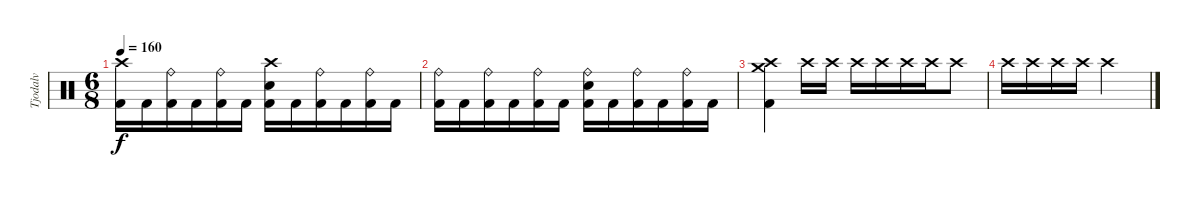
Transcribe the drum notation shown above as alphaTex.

\track ("Tjodalv" "Tjodalv") {instrument percussion}
\staff {score}
\articulation defaults
\ts (6 8)
\tempo 160
\clef neutral
\ks c
("Crash high (hit)" "Kick (hit) 2").16{dy f} "Kick (hit) 2".16 ("Ride (bell)" "Kick (hit) 2").16 "Kick (hit) 2".16 ("Ride (bell)" "Kick (hit) 2").16 "Kick (hit) 2".16 ("Crash high (hit)" "Snare (hit) 2" "Kick (hit) 2").16 "Kick (hit) 2".16 ("Ride (bell)" "Kick (hit) 2").16 "Kick (hit) 2".16 ("Ride (bell)" "Kick (hit) 2").16 "Kick (hit) 2".16 |
("Ride (bell)" "Kick (hit) 2").16 "Kick (hit) 2".16 ("Ride (bell)" "Kick (hit) 2").16 "Kick (hit) 2".16 ("Ride (bell)" "Kick (hit) 2").16 "Kick (hit) 2".16 ("Ride (bell)" "Snare (hit) 2" "Kick (hit) 2").16 "Kick (hit) 2".16 ("Ride (bell)" "Kick (hit) 2").16 "Kick (hit) 2".16 ("Ride (bell)" "Kick (hit) 2").16 "Kick (hit) 2".16 |
("Crash high (hit)" "Crash medium (hit)" "Kick (hit) 2").4 "Crash high (hit)".16 "Crash high (hit)".16 "Crash high (hit)".16 "Crash high (hit)".16 "Crash high (hit)".16 "Crash high (hit)".16 "Crash high (hit)".8 |
"Crash high (hit)".16 "Crash high (hit)".16 "Crash high (hit)".16 "Crash high (hit)".16 "Crash high (hit)".2
